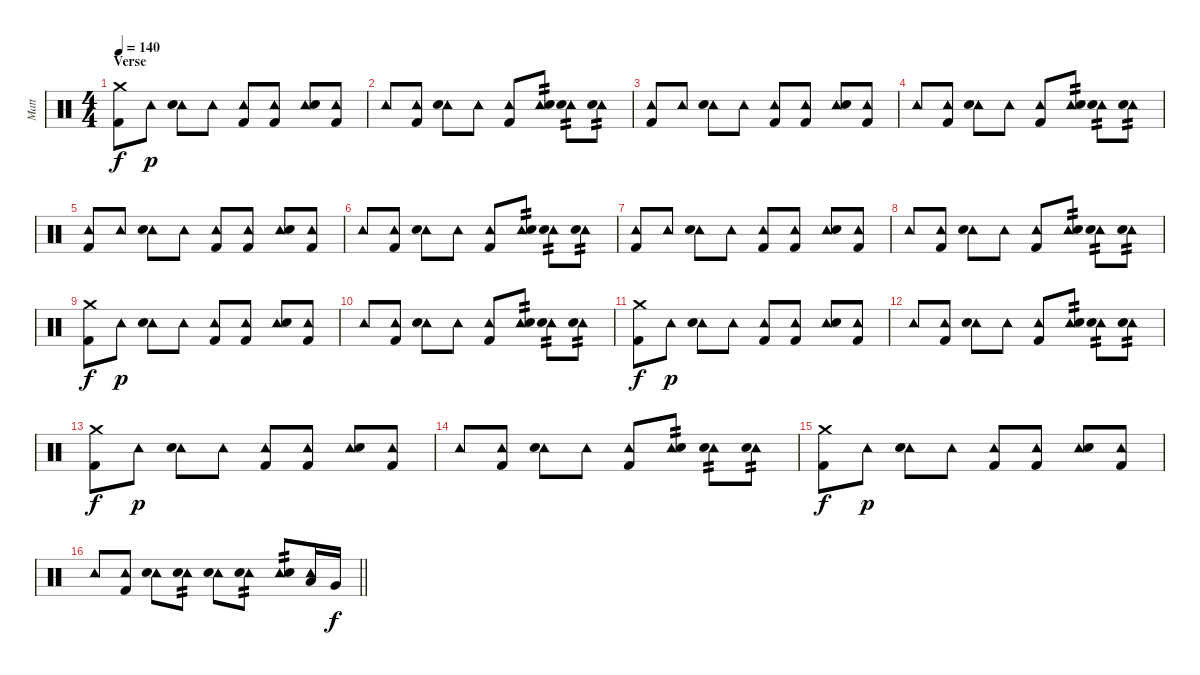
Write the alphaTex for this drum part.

\track ("Matt" "Matt") {instrument percussion}
\staff {score}
\articulation defaults
\ts (4 4)
\section ("" "Verse")
\tempo 140
\clef neutral
\ks c
("Crash medium (hit)" "Kick (hit) 2").8{dy f} "Tambourine (hit)".8{dy p} ("Tambourine (hit)" "Snare (hit) 2").8 "Tambourine (hit)".8 ("Tambourine (hit)" "Kick (hit) 2").8 ("Tambourine (hit)" "Kick (hit) 2").8 ("Tambourine (hit)" "Snare (hit) 2").8 ("Tambourine (hit)" "Kick (hit) 2").8 |
"Tambourine (hit)".8 ("Tambourine (hit)" "Kick (hit) 2").8 ("Tambourine (hit)" "Snare (hit) 2").8 "Tambourine (hit)".8 ("Tambourine (hit)" "Kick (hit) 2").8 ("Tambourine (hit)" "Snare (hit) 2").8{tp 2} ("Tambourine (hit)" "Snare (hit) 2").8{tp 2} ("Tambourine (hit)" "Snare (hit) 2").8{tp 2} |
("Tambourine (hit)" "Kick (hit) 2").8 "Tambourine (hit)".8 ("Tambourine (hit)" "Snare (hit) 2").8 "Tambourine (hit)".8 ("Tambourine (hit)" "Kick (hit) 2").8 ("Tambourine (hit)" "Kick (hit) 2").8 ("Tambourine (hit)" "Snare (hit) 2").8 ("Tambourine (hit)" "Kick (hit) 2").8 |
"Tambourine (hit)".8 ("Tambourine (hit)" "Kick (hit) 2").8 ("Tambourine (hit)" "Snare (hit) 2").8 "Tambourine (hit)".8 ("Tambourine (hit)" "Kick (hit) 2").8 ("Tambourine (hit)" "Snare (hit) 2").8{tp 2} ("Tambourine (hit)" "Snare (hit) 2").8{tp 2} ("Tambourine (hit)" "Snare (hit) 2").8{tp 2} |
("Tambourine (hit)" "Kick (hit) 2").8 "Tambourine (hit)".8 ("Tambourine (hit)" "Snare (hit) 2").8 "Tambourine (hit)".8 ("Tambourine (hit)" "Kick (hit) 2").8 ("Tambourine (hit)" "Kick (hit) 2").8 ("Tambourine (hit)" "Snare (hit) 2").8 ("Tambourine (hit)" "Kick (hit) 2").8 |
"Tambourine (hit)".8 ("Tambourine (hit)" "Kick (hit) 2").8 ("Tambourine (hit)" "Snare (hit) 2").8 "Tambourine (hit)".8 ("Tambourine (hit)" "Kick (hit) 2").8 ("Tambourine (hit)" "Snare (hit) 2").8{tp 2} ("Tambourine (hit)" "Snare (hit) 2").8{tp 2} ("Tambourine (hit)" "Snare (hit) 2").8{tp 2} |
("Tambourine (hit)" "Kick (hit) 2").8 "Tambourine (hit)".8 ("Tambourine (hit)" "Snare (hit) 2").8 "Tambourine (hit)".8 ("Tambourine (hit)" "Kick (hit) 2").8 ("Tambourine (hit)" "Kick (hit) 2").8 ("Tambourine (hit)" "Snare (hit) 2").8 ("Tambourine (hit)" "Kick (hit) 2").8 |
"Tambourine (hit)".8 ("Tambourine (hit)" "Kick (hit) 2").8 ("Tambourine (hit)" "Snare (hit) 2").8 "Tambourine (hit)".8 ("Tambourine (hit)" "Kick (hit) 2").8 ("Tambourine (hit)" "Snare (hit) 2").8{tp 2} ("Tambourine (hit)" "Snare (hit) 2").8{tp 2} ("Tambourine (hit)" "Snare (hit) 2").8{tp 2} |
("Crash medium (hit)" "Kick (hit) 2").8{dy f} "Tambourine (hit)".8{dy p} ("Tambourine (hit)" "Snare (hit) 2").8 "Tambourine (hit)".8 ("Tambourine (hit)" "Kick (hit) 2").8 ("Tambourine (hit)" "Kick (hit) 2").8 ("Tambourine (hit)" "Snare (hit) 2").8 ("Tambourine (hit)" "Kick (hit) 2").8 |
"Tambourine (hit)".8 ("Tambourine (hit)" "Kick (hit) 2").8 ("Tambourine (hit)" "Snare (hit) 2").8 "Tambourine (hit)".8 ("Tambourine (hit)" "Kick (hit) 2").8 ("Tambourine (hit)" "Snare (hit) 2").8{tp 2} ("Tambourine (hit)" "Snare (hit) 2").8{tp 2} ("Tambourine (hit)" "Snare (hit) 2").8{tp 2} |
("Crash medium (hit)" "Kick (hit) 2").8{dy f} "Tambourine (hit)".8{dy p} ("Tambourine (hit)" "Snare (hit) 2").8 "Tambourine (hit)".8 ("Tambourine (hit)" "Kick (hit) 2").8 ("Tambourine (hit)" "Kick (hit) 2").8 ("Tambourine (hit)" "Snare (hit) 2").8 ("Tambourine (hit)" "Kick (hit) 2").8 |
"Tambourine (hit)".8 ("Tambourine (hit)" "Kick (hit) 2").8 ("Tambourine (hit)" "Snare (hit) 2").8 "Tambourine (hit)".8 ("Tambourine (hit)" "Kick (hit) 2").8 ("Tambourine (hit)" "Snare (hit) 2").8{tp 2} ("Tambourine (hit)" "Snare (hit) 2").8{tp 2} ("Tambourine (hit)" "Snare (hit) 2").8{tp 2} |
("Crash medium (hit)" "Kick (hit) 2").8{dy f} "Tambourine (hit)".8{dy p} ("Tambourine (hit)" "Snare (hit) 2").8 "Tambourine (hit)".8 ("Tambourine (hit)" "Kick (hit) 2").8 ("Tambourine (hit)" "Kick (hit) 2").8 ("Tambourine (hit)" "Snare (hit) 2").8 ("Tambourine (hit)" "Kick (hit) 2").8 |
"Tambourine (hit)".8 ("Tambourine (hit)" "Kick (hit) 2").8 ("Tambourine (hit)" "Snare (hit) 2").8 "Tambourine (hit)".8 ("Tambourine (hit)" "Kick (hit) 2").8 ("Tambourine (hit)" "Snare (hit) 2").8{tp 2} ("Tambourine (hit)" "Snare (hit) 2").8{tp 2} ("Tambourine (hit)" "Snare (hit) 2").8{tp 2} |
("Crash medium (hit)" "Kick (hit) 2").8{dy f} "Tambourine (hit)".8{dy p} ("Tambourine (hit)" "Snare (hit) 2").8 "Tambourine (hit)".8 ("Tambourine (hit)" "Kick (hit) 2").8 ("Tambourine (hit)" "Kick (hit) 2").8 ("Tambourine (hit)" "Snare (hit) 2").8 ("Tambourine (hit)" "Kick (hit) 2").8 |
\barLineRight lightlight "Tambourine (hit)".8
("Tambourine (hit)" "Kick (hit) 2").8 ("Tambourine (hit)" "Snare (hit) 2").8 ("Tambourine (hit)" "Snare (hit) 2").8{tp 2} ("Tambourine (hit)" "Snare (hit) 2").8 ("Tambourine (hit)" "Snare (hit) 2").8{tp 2} ("Tambourine (hit)" "Snare (hit) 2").8{tp 2} ("Tambourine (hit)" "Low Tom (hit)").16 "Very Low Tom (hit)".16{dy f}
